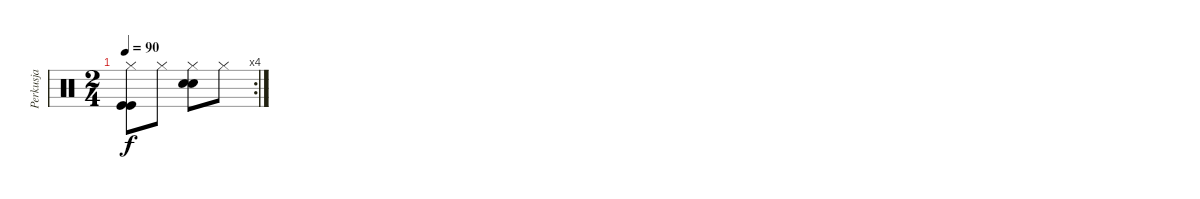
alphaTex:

\track ("Perkusja" "Perkusja") {instrument percussion}
\staff {score}
\articulation defaults
\rc 4
\ts (2 4)
\tempo 90
\clef neutral
\ks c
("Hi-Hat (closed)" "Kick (hit)" "Kick (hit)").8{dy f} "Hi-Hat (closed)".8 ("Hi-Hat (closed)" "Snare (hit) 2" "Snare (hit) 2").8 "Hi-Hat (closed)".8
